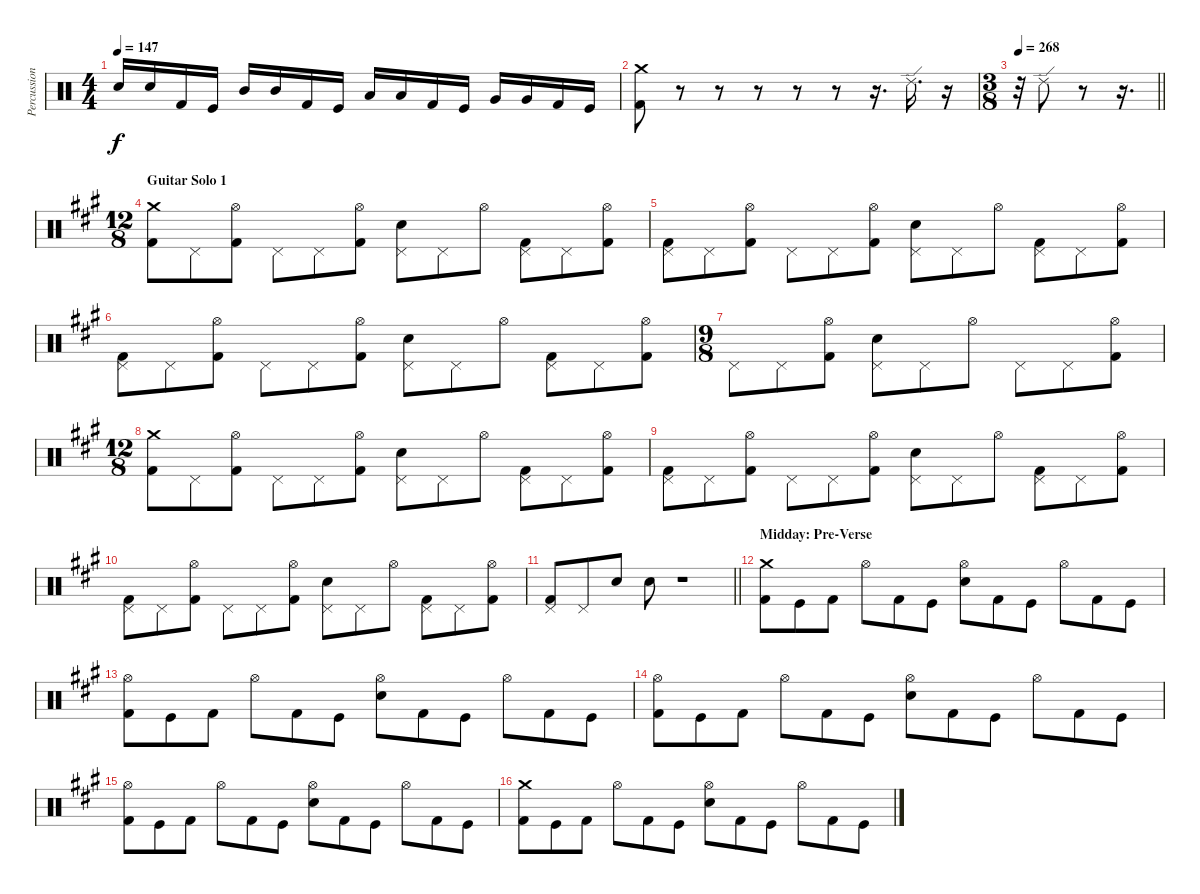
\track ("Percussion" "Percussion") {instrument percussion}
\staff {score}
\articulation defaults
\ts (4 4)
\tempo 147
\clef neutral
\ks c "Electric Snare (hit)".16{dy f} "Electric Snare (hit)".16 "Kick (hit) 2".16 "Kick (hit)".16 "Mid Tom (hit)".16 "Mid Tom (hit)".16 "Kick (hit) 2".16 "Kick (hit)".16 "Low Tom (hit)".16 "Low Tom (hit)".16 "Kick (hit) 2".16 "Kick (hit)".16 "Very Low Tom (hit)".16 "Very Low Tom (hit)".16 "Kick (hit) 2".16 "Kick (hit)".16
|
("Crash medium (hit)" "Kick (hit) 2").8 r.8 r.8 r.8 r.8 r.8 r.16{d} "Ride (edge) 2".16{d} r.16 |
\ts (3 8)
\tempo 268
\barLineRight lightlight
r.32 "Ride (edge) 2".8 r.8 r.16{d} |
\ts (12 8)
\section ("" "Guitar Solo 1")
\ks a
("Crash medium (hit)" "Kick (hit) 2").8 "Pedal Hi-Hat (hit)".8 ("Hi-Hat (open)" "Kick (hit) 2").8 "Pedal Hi-Hat (hit)".8 "Pedal Hi-Hat (hit)".8 ("Hi-Hat (open)" "Kick (hit) 2").8 ("Pedal Hi-Hat (hit)" "Electric Snare (hit)").8 "Pedal Hi-Hat (hit)".8 "Hi-Hat (open)".8 ("Pedal Hi-Hat (hit)" "Kick (hit) 2").8 "Pedal Hi-Hat (hit)".8 ("Hi-Hat (open)" "Kick (hit) 2").8 |
("Pedal Hi-Hat (hit)" "Kick (hit) 2").8 "Pedal Hi-Hat (hit)".8 ("Hi-Hat (open)" "Kick (hit) 2").8 "Pedal Hi-Hat (hit)".8 "Pedal Hi-Hat (hit)".8 ("Hi-Hat (open)" "Kick (hit) 2").8 ("Pedal Hi-Hat (hit)" "Electric Snare (hit)").8 "Pedal Hi-Hat (hit)".8 "Hi-Hat (open)".8 ("Pedal Hi-Hat (hit)" "Kick (hit) 2").8 "Pedal Hi-Hat (hit)".8 ("Hi-Hat (open)" "Kick (hit) 2").8 |
("Pedal Hi-Hat (hit)" "Kick (hit) 2").8 "Pedal Hi-Hat (hit)".8 ("Hi-Hat (open)" "Kick (hit) 2").8 "Pedal Hi-Hat (hit)".8 "Pedal Hi-Hat (hit)".8 ("Hi-Hat (open)" "Kick (hit) 2").8 ("Pedal Hi-Hat (hit)" "Electric Snare (hit)").8 "Pedal Hi-Hat (hit)".8 "Hi-Hat (open)".8 ("Pedal Hi-Hat (hit)" "Kick (hit) 2").8 "Pedal Hi-Hat (hit)".8 ("Hi-Hat (open)" "Kick (hit) 2").8 |
\ts (9 8)
"Pedal Hi-Hat (hit)".8 "Pedal Hi-Hat (hit)".8 ("Hi-Hat (open)" "Kick (hit) 2").8 ("Pedal Hi-Hat (hit)" "Electric Snare (hit)").8 "Pedal Hi-Hat (hit)".8 "Hi-Hat (open)".8 "Pedal Hi-Hat (hit)".8 "Pedal Hi-Hat (hit)".8 ("Hi-Hat (open)" "Kick (hit) 2").8 |
\ts (12 8)
("Crash medium (hit)" "Kick (hit) 2").8 "Pedal Hi-Hat (hit)".8 ("Hi-Hat (open)" "Kick (hit) 2").8 "Pedal Hi-Hat (hit)".8 "Pedal Hi-Hat (hit)".8 ("Hi-Hat (open)" "Kick (hit) 2").8 ("Pedal Hi-Hat (hit)" "Electric Snare (hit)").8 "Pedal Hi-Hat (hit)".8 "Hi-Hat (open)".8 ("Pedal Hi-Hat (hit)" "Kick (hit) 2").8 "Pedal Hi-Hat (hit)".8 ("Hi-Hat (open)" "Kick (hit) 2").8 |
("Pedal Hi-Hat (hit)" "Kick (hit) 2").8 "Pedal Hi-Hat (hit)".8 ("Hi-Hat (open)" "Kick (hit) 2").8 "Pedal Hi-Hat (hit)".8 "Pedal Hi-Hat (hit)".8 ("Hi-Hat (open)" "Kick (hit) 2").8 ("Pedal Hi-Hat (hit)" "Electric Snare (hit)").8 "Pedal Hi-Hat (hit)".8 "Hi-Hat (open)".8 ("Pedal Hi-Hat (hit)" "Kick (hit) 2").8 "Pedal Hi-Hat (hit)".8 ("Hi-Hat (open)" "Kick (hit) 2").8 |
("Pedal Hi-Hat (hit)" "Kick (hit) 2").8 "Pedal Hi-Hat (hit)".8 ("Hi-Hat (open)" "Kick (hit) 2").8 "Pedal Hi-Hat (hit)".8 "Pedal Hi-Hat (hit)".8 ("Hi-Hat (open)" "Kick (hit) 2").8 ("Pedal Hi-Hat (hit)" "Electric Snare (hit)").8 "Pedal Hi-Hat (hit)".8 "Hi-Hat (open)".8 ("Pedal Hi-Hat (hit)" "Kick (hit) 2").8 "Pedal Hi-Hat (hit)".8 ("Hi-Hat (open)" "Kick (hit) 2").8 |
\barLineRight lightlight
("Pedal Hi-Hat (hit)" "Kick (hit) 2").8 "Pedal Hi-Hat (hit)".8 "Electric Snare (hit)".8 "Electric Snare (hit)".8 r.1 |
\section ("" "Midday: Pre-Verse")
("Crash medium (hit)" "Kick (hit) 2").8 "Kick (hit)".8 "Kick (hit) 2".8 "Hi-Hat (open)".8 "Kick (hit) 2".8 "Kick (hit)".8 ("Hi-Hat (open)" "Electric Snare (hit)").8 "Kick (hit) 2".8 "Kick (hit)".8 "Hi-Hat (open)".8 "Kick (hit) 2".8 "Kick (hit)".8 |
("Hi-Hat (open)" "Kick (hit) 2").8 "Kick (hit)".8 "Kick (hit) 2".8 "Hi-Hat (open)".8 "Kick (hit) 2".8 "Kick (hit)".8 ("Hi-Hat (open)" "Electric Snare (hit)").8 "Kick (hit) 2".8 "Kick (hit)".8 "Hi-Hat (open)".8 "Kick (hit) 2".8 "Kick (hit)".8 |
("Hi-Hat (open)" "Kick (hit) 2").8 "Kick (hit)".8 "Kick (hit) 2".8 "Hi-Hat (open)".8 "Kick (hit) 2".8 "Kick (hit)".8 ("Hi-Hat (open)" "Electric Snare (hit)").8 "Kick (hit) 2".8 "Kick (hit)".8 "Hi-Hat (open)".8 "Kick (hit) 2".8 "Kick (hit)".8 |
("Hi-Hat (open)" "Kick (hit) 2").8 "Kick (hit)".8 "Kick (hit) 2".8 "Hi-Hat (open)".8 "Kick (hit) 2".8 "Kick (hit)".8 ("Hi-Hat (open)" "Electric Snare (hit)").8 "Kick (hit) 2".8 "Kick (hit)".8 "Hi-Hat (open)".8 "Kick (hit) 2".8 "Kick (hit)".8 |
("Crash medium (hit)" "Kick (hit) 2").8 "Kick (hit)".8 "Kick (hit) 2".8 "Hi-Hat (open)".8 "Kick (hit) 2".8 "Kick (hit)".8 ("Hi-Hat (open)" "Electric Snare (hit)").8 "Kick (hit) 2".8 "Kick (hit)".8 "Hi-Hat (open)".8 "Kick (hit) 2".8 "Kick (hit)".8
